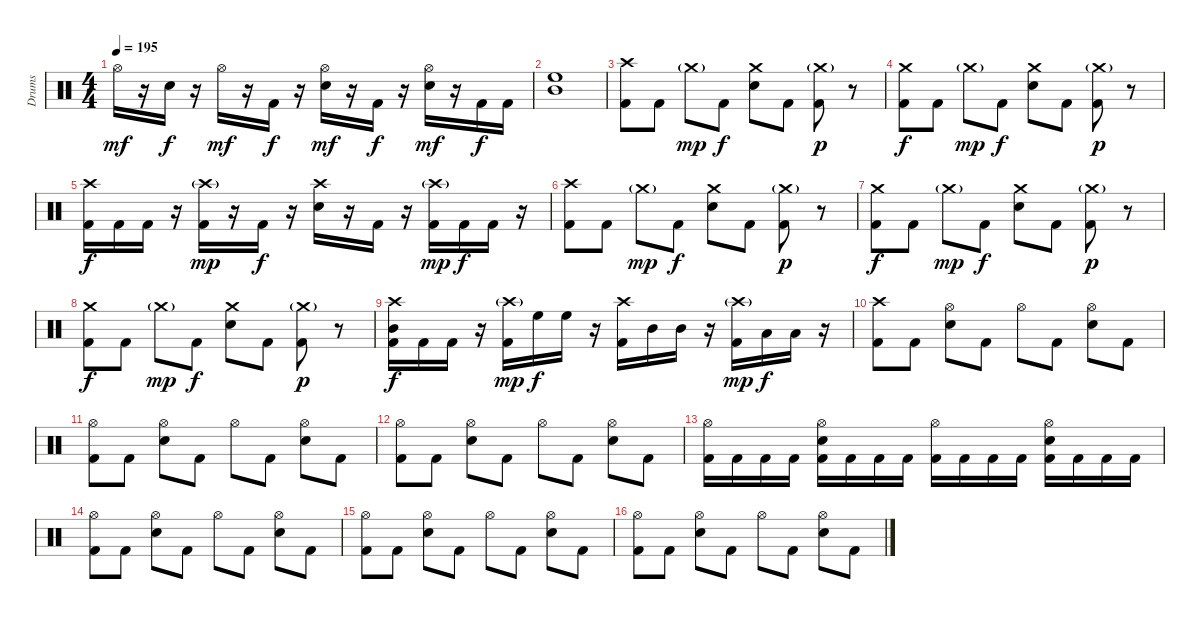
\track ("Drums" "Drums") {instrument percussion}
\staff {score}
\articulation defaults
\ts (4 4)
\tempo 195
\clef neutral
\ks c "Hi-Hat (open)".16{dy mf}
r.16 "Snare (hit) 2".16{dy f} r.16 "Hi-Hat (open)".16{dy mf} r.16 "Kick (hit) 2".16{dy f} r.16 ("Hi-Hat (open)" "Snare (hit) 2").16{dy mf} r.16 "Kick (hit) 2".16{dy f} r.16 ("Hi-Hat (open)" "Snare (hit) 2").16{dy mf} r.16 "Kick (hit) 2".16{dy f} "Kick (hit) 2".16 |
("Mid Tom (hit)" "High Floor Tom (hit)").1 |
("Crash high (hit)" "Kick (hit) 2").8 "Kick (hit) 2".8 "Crash medium (hit)"{g}.8{dy mp} "Kick (hit) 2".8{dy f} ("Crash medium (hit)" "Snare (hit) 2").8 "Kick (hit) 2".8 ("Crash medium (hit)"{g} "Kick (hit) 2").8{dy p} r.8 |
("Crash medium (hit)" "Kick (hit) 2").8{dy f} "Kick (hit) 2".8 "Crash medium (hit)"{g}.8{dy mp} "Kick (hit) 2".8{dy f} ("Crash medium (hit)" "Snare (hit) 2").8 "Kick (hit) 2".8 ("Crash medium (hit)"{g} "Kick (hit) 2").8{dy p} r.8 |
("Crash high (hit)" "Kick (hit) 2").16{dy f} "Kick (hit) 2".16 "Kick (hit) 2".16 r.16 ("Crash high (hit)"{g} "Kick (hit) 2").16{dy mp} r.16 "Kick (hit) 2".16{dy f} r.16 ("Crash high (hit)" "Snare (hit) 2").16 r.16 "Kick (hit) 2".16 r.16 ("Crash high (hit)"{g} "Kick (hit) 2").16{dy mp} "Kick (hit) 2".16{dy f} "Kick (hit) 2".16 r.16 |
("Crash high (hit)" "Kick (hit) 2").8 "Kick (hit) 2".8 "Crash medium (hit)"{g}.8{dy mp} "Kick (hit) 2".8{dy f} ("Crash medium (hit)" "Snare (hit) 2").8 "Kick (hit) 2".8 ("Crash medium (hit)"{g} "Kick (hit) 2").8{dy p} r.8 |
("Crash medium (hit)" "Kick (hit) 2").8{dy f} "Kick (hit) 2".8 "Crash medium (hit)"{g}.8{dy mp} "Kick (hit) 2".8{dy f} ("Crash medium (hit)" "Snare (hit) 2").8 "Kick (hit) 2".8 ("Crash medium (hit)"{g} "Kick (hit) 2").8{dy p} r.8 |
("Crash medium (hit)" "Kick (hit) 2").8{dy f} "Kick (hit) 2".8 "Crash medium (hit)"{g}.8{dy mp} "Kick (hit) 2".8{dy f} ("Crash medium (hit)" "Snare (hit) 2").8 "Kick (hit) 2".8 ("Crash medium (hit)"{g} "Kick (hit) 2").8{dy p} r.8 |
("Crash high (hit)" "Mid Tom (hit)" "Kick (hit) 2").16{dy f} "Kick (hit) 2".16 "Kick (hit) 2".16 r.16 ("Crash high (hit)"{g} "Kick (hit) 2").16{dy mp} "High Floor Tom (hit)".16{dy f} "High Floor Tom (hit)".16 r.16 ("Crash high (hit)" "Kick (hit) 2").16 "Mid Tom (hit)".16 "Mid Tom (hit)".16 r.16 ("Crash high (hit)"{g} "Kick (hit) 2").16{dy mp} "Low Floor Tom (hit)".16{dy f} "Low Floor Tom (hit)".16 r.16 |
("Crash high (hit)" "Kick (hit) 2").8 "Kick (hit) 2".8 ("Hi-Hat (open)" "Snare (hit) 2").8 "Kick (hit) 2".8 "Hi-Hat (open)".8 "Kick (hit) 2".8 ("Hi-Hat (open)" "Snare (hit) 2").8 "Kick (hit) 2".8 |
("Hi-Hat (open)" "Kick (hit) 2").8 "Kick (hit) 2".8 ("Hi-Hat (open)" "Snare (hit) 2").8 "Kick (hit) 2".8 "Hi-Hat (open)".8 "Kick (hit) 2".8 ("Hi-Hat (open)" "Snare (hit) 2").8 "Kick (hit) 2".8 |
("Hi-Hat (open)" "Kick (hit) 2").8 "Kick (hit) 2".8 ("Hi-Hat (open)" "Snare (hit) 2").8 "Kick (hit) 2".8 "Hi-Hat (open)".8 "Kick (hit) 2".8 ("Hi-Hat (open)" "Snare (hit) 2").8 "Kick (hit) 2".8 |
("Hi-Hat (open)" "Kick (hit) 2").16 "Kick (hit) 2".16 "Kick (hit) 2".16 "Kick (hit) 2".16 ("Hi-Hat (open)" "Snare (hit) 2" "Kick (hit) 2").16 "Kick (hit) 2".16 "Kick (hit) 2".16 "Kick (hit) 2".16 ("Hi-Hat (open)" "Kick (hit) 2").16 "Kick (hit) 2".16 "Kick (hit) 2".16 "Kick (hit) 2".16 ("Hi-Hat (open)" "Snare (hit) 2" "Kick (hit) 2").16 "Kick (hit) 2".16 "Kick (hit) 2".16 "Kick (hit) 2".16 |
("Hi-Hat (open)" "Kick (hit) 2").8 "Kick (hit) 2".8 ("Hi-Hat (open)" "Snare (hit) 2").8 "Kick (hit) 2".8 "Hi-Hat (open)".8 "Kick (hit) 2".8 ("Hi-Hat (open)" "Snare (hit) 2").8 "Kick (hit) 2".8 |
("Hi-Hat (open)" "Kick (hit) 2").8 "Kick (hit) 2".8 ("Hi-Hat (open)" "Snare (hit) 2").8 "Kick (hit) 2".8 "Hi-Hat (open)".8 "Kick (hit) 2".8 ("Hi-Hat (open)" "Snare (hit) 2").8 "Kick (hit) 2".8 |
("Hi-Hat (open)" "Kick (hit) 2").8 "Kick (hit) 2".8 ("Hi-Hat (open)" "Snare (hit) 2").8 "Kick (hit) 2".8 "Hi-Hat (open)".8 "Kick (hit) 2".8 ("Hi-Hat (open)" "Snare (hit) 2").8 "Kick (hit) 2".8
